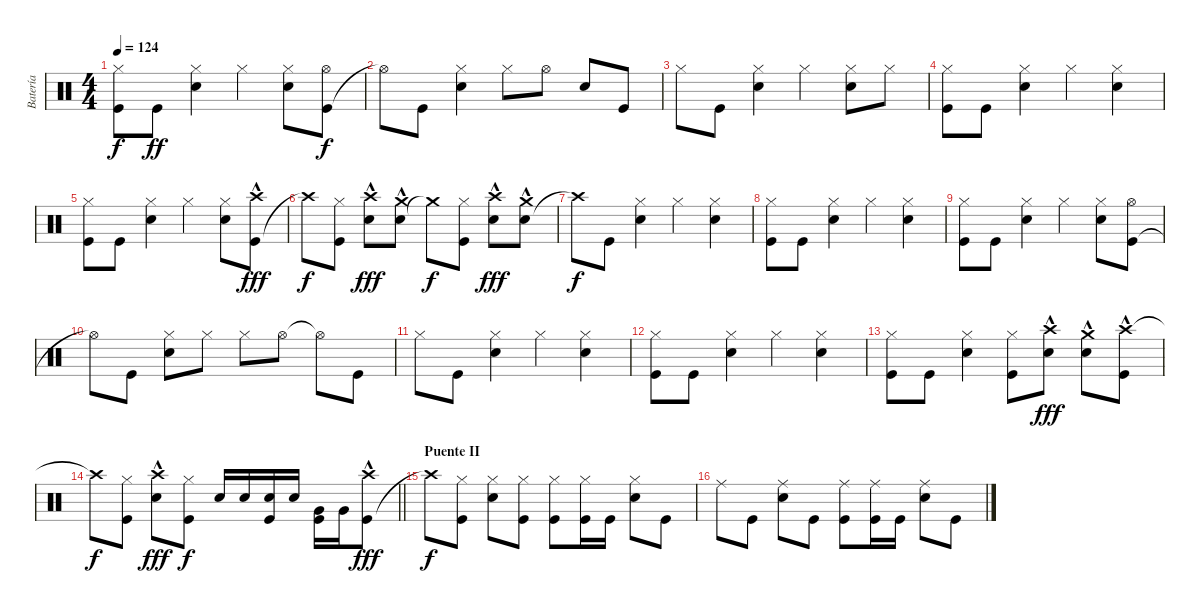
\track ("Batería" "Batería") {instrument percussion}
\staff {score}
\articulation defaults
\ts (4 4)
\tempo 124
\clef neutral
\ks c
("Kick (hit)" "Hi-Hat (closed)").8{dy f} "Kick (hit)".8{dy ff} ("Snare (hit) 2" "Hi-Hat (closed)").4 "Hi-Hat (closed)".4 ("Snare (hit) 2" "Hi-Hat (closed)").8 ("Kick (hit)" "Hi-Hat (open)").8{dy f} |
"Hi-Hat (open)"{t}.8 "Kick (hit)".8 ("Snare (hit) 2" "Hi-Hat (closed)").4 "Hi-Hat (closed)".8 "Hi-Hat (open)".8 "Snare (hit) 2".8 "Kick (hit)".8 |
"Hi-Hat (closed)".8 "Kick (hit)".8 ("Snare (hit) 2" "Hi-Hat (closed)").4 "Hi-Hat (closed)".4 ("Hi-Hat (closed)" "Snare (hit) 2").8 "Hi-Hat (closed)".8 |
("Kick (hit)" "Hi-Hat (closed)").8 "Kick (hit)".8 ("Snare (hit) 2" "Hi-Hat (closed)").4 "Hi-Hat (closed)".4 ("Snare (hit) 2" "Hi-Hat (closed)").4 |
("Kick (hit)" "Hi-Hat (closed)").8 "Kick (hit)".8 ("Snare (hit) 2" "Hi-Hat (closed)").4 "Hi-Hat (closed)".4 ("Hi-Hat (closed)" "Snare (hit) 2").8 ("Kick (hit)" "Crash high (hit)"{hac}).8{dy fff} |
"Crash high (hit)"{t}.8{dy f} ("Kick (hit)" "Hi-Hat (closed)").8 ("Snare (hit) 2" "Crash high (hit)"{hac}).8{dy fff} ("Snare (hit) 2" "Crash medium (hit)"{hac}).8 "Crash medium (hit)"{t}.8{dy f} ("Kick (hit)" "Hi-Hat (closed)").8 ("Snare (hit) 2" "Crash high (hit)"{hac}).8{dy fff} ("Snare (hit) 2" "Crash medium (hit)"{hac}).8 |
"Crash high (hit)"{t}.8{dy f} "Kick (hit)".8 ("Snare (hit) 2" "Hi-Hat (closed)").4 "Hi-Hat (closed)".4 ("Snare (hit) 2" "Hi-Hat (closed)").4 |
("Kick (hit)" "Hi-Hat (closed)").8 "Kick (hit)".8 ("Snare (hit) 2" "Hi-Hat (closed)").4 "Hi-Hat (closed)".4 ("Snare (hit) 2" "Hi-Hat (closed)").4 |
("Kick (hit)" "Hi-Hat (closed)").8 "Kick (hit)".8 ("Snare (hit) 2" "Hi-Hat (closed)").4 "Hi-Hat (closed)".4 ("Hi-Hat (closed)" "Snare (hit) 2").8 ("Kick (hit)" "Hi-Hat (open)").8 |
"Hi-Hat (open)"{t}.8 "Kick (hit)".8 ("Snare (hit) 2" "Hi-Hat (closed)").8 "Hi-Hat (closed)".8 "Hi-Hat (closed)".8 "Hi-Hat (open)".8 "Hi-Hat (open)"{t}.8 "Kick (hit)".8 |
"Hi-Hat (closed)".8 "Kick (hit)".8 ("Hi-Hat (closed)" "Snare (hit) 2").4 "Hi-Hat (closed)".4 ("Snare (hit) 2" "Hi-Hat (closed)").4 |
("Kick (hit)" "Hi-Hat (closed)").8 "Kick (hit)".8 ("Snare (hit) 2" "Hi-Hat (closed)").4 "Hi-Hat (closed)".4 ("Snare (hit) 2" "Hi-Hat (closed)").4 |
("Kick (hit)" "Hi-Hat (closed)").8 "Kick (hit)".8 ("Snare (hit) 2" "Hi-Hat (closed)").4 ("Hi-Hat (closed)" "Kick (hit)").8 ("Crash high (hit)"{hac} "Snare (hit) 2").8{dy fff} ("Crash medium (hit)"{hac} "Snare (hit) 2").8 ("Crash high (hit)"{hac} "Kick (hit)").8 |
\barLineRight lightlight "Crash high (hit)"{t}.8{dy f}
("Kick (hit)" "Hi-Hat (closed)").8 ("Snare (hit) 2" "Crash high (hit)"{hac}).8{dy fff} ("Kick (hit)" "Hi-Hat (closed)").8{dy f} "Snare (hit) 2".16 "Snare (hit) 2".16 ("Snare (hit) 2" "Kick (hit)").16 "Snare (hit) 2".16 ("Very Low Tom (hit)" "Kick (hit)").16 "Very Low Tom (hit)".16 ("Kick (hit)" "Crash high (hit)"{hac}).8{dy fff} |
\section ("" "Puente II")
"Crash high (hit)"{t}.8{dy f} ("Kick (hit)" "Hi-Hat (closed)").8 ("Snare (hit) 2" "Hi-Hat (closed)").8 ("Kick (hit)" "Hi-Hat (closed)").8 ("Hi-Hat (closed)" "Kick (hit)").8 ("Kick (hit)" "Hi-Hat (closed)").16 "Kick (hit)".16 ("Snare (hit) 2" "Hi-Hat (closed)").8 "Kick (hit)".8 |
"Ride (middle)".8 "Kick (hit)".8 ("Snare (hit) 2" "Ride (middle)").8 "Kick (hit)".8 ("Ride (middle)" "Kick (hit)").8 ("Kick (hit)" "Ride (middle)").16 "Kick (hit)".16 ("Ride (middle)" "Snare (hit) 2").8 "Kick (hit)".8
